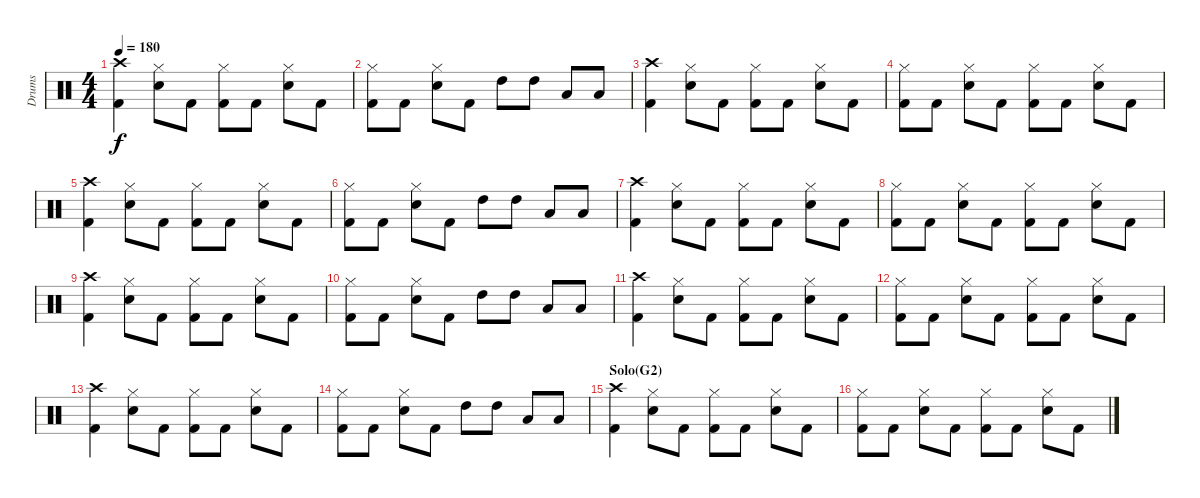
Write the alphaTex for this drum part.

\track ("Drums" "Drums") {instrument percussion}
\staff {score}
\articulation defaults
\ts (4 4)
\tempo 180
\clef neutral
\ks c
("Crash high (hit)" "Kick (hit) 2").4{dy f} ("Hi-Hat (closed)" "Electric Snare (hit)").8 "Kick (hit) 2".8 ("Hi-Hat (closed)" "Kick (hit) 2").8 "Kick (hit) 2".8 ("Hi-Hat (closed)" "Electric Snare (hit)").8 "Kick (hit) 2".8 |
("Hi-Hat (closed)" "Kick (hit) 2").8 "Kick (hit) 2".8 ("Hi-Hat (closed)" "Electric Snare (hit)").8 "Kick (hit) 2".8 "High Tom (hit)".8 "High Tom (hit)".8 "Low Tom (hit)".8 "Low Tom (hit)".8 |
("Crash high (hit)" "Kick (hit) 2").4 ("Hi-Hat (closed)" "Electric Snare (hit)").8 "Kick (hit) 2".8 ("Hi-Hat (closed)" "Kick (hit) 2").8 "Kick (hit) 2".8 ("Hi-Hat (closed)" "Electric Snare (hit)").8 "Kick (hit) 2".8 |
("Hi-Hat (closed)" "Kick (hit) 2").8 "Kick (hit) 2".8 ("Hi-Hat (closed)" "Electric Snare (hit)").8 "Kick (hit) 2".8 ("Hi-Hat (closed)" "Kick (hit) 2").8 "Kick (hit) 2".8 ("Hi-Hat (closed)" "Electric Snare (hit)").8 "Kick (hit) 2".8 |
("Crash high (hit)" "Kick (hit) 2").4 ("Hi-Hat (closed)" "Electric Snare (hit)").8 "Kick (hit) 2".8 ("Hi-Hat (closed)" "Kick (hit) 2").8 "Kick (hit) 2".8 ("Hi-Hat (closed)" "Electric Snare (hit)").8 "Kick (hit) 2".8 |
("Hi-Hat (closed)" "Kick (hit) 2").8 "Kick (hit) 2".8 ("Hi-Hat (closed)" "Electric Snare (hit)").8 "Kick (hit) 2".8 "High Tom (hit)".8 "High Tom (hit)".8 "Low Tom (hit)".8 "Low Tom (hit)".8 |
("Crash high (hit)" "Kick (hit) 2").4 ("Hi-Hat (closed)" "Electric Snare (hit)").8 "Kick (hit) 2".8 ("Hi-Hat (closed)" "Kick (hit) 2").8 "Kick (hit) 2".8 ("Hi-Hat (closed)" "Electric Snare (hit)").8 "Kick (hit) 2".8 |
("Hi-Hat (closed)" "Kick (hit) 2").8 "Kick (hit) 2".8 ("Hi-Hat (closed)" "Electric Snare (hit)").8 "Kick (hit) 2".8 ("Hi-Hat (closed)" "Kick (hit) 2").8 "Kick (hit) 2".8 ("Hi-Hat (closed)" "Electric Snare (hit)").8 "Kick (hit) 2".8 |
("Crash high (hit)" "Kick (hit) 2").4 ("Hi-Hat (closed)" "Electric Snare (hit)").8 "Kick (hit) 2".8 ("Hi-Hat (closed)" "Kick (hit) 2").8 "Kick (hit) 2".8 ("Hi-Hat (closed)" "Electric Snare (hit)").8 "Kick (hit) 2".8 |
("Hi-Hat (closed)" "Kick (hit) 2").8 "Kick (hit) 2".8 ("Hi-Hat (closed)" "Electric Snare (hit)").8 "Kick (hit) 2".8 "High Tom (hit)".8 "High Tom (hit)".8 "Low Tom (hit)".8 "Low Tom (hit)".8 |
("Crash high (hit)" "Kick (hit) 2").4 ("Hi-Hat (closed)" "Electric Snare (hit)").8 "Kick (hit) 2".8 ("Hi-Hat (closed)" "Kick (hit) 2").8 "Kick (hit) 2".8 ("Hi-Hat (closed)" "Electric Snare (hit)").8 "Kick (hit) 2".8 |
("Hi-Hat (closed)" "Kick (hit) 2").8 "Kick (hit) 2".8 ("Hi-Hat (closed)" "Electric Snare (hit)").8 "Kick (hit) 2".8 ("Hi-Hat (closed)" "Kick (hit) 2").8 "Kick (hit) 2".8 ("Hi-Hat (closed)" "Electric Snare (hit)").8 "Kick (hit) 2".8 |
("Crash high (hit)" "Kick (hit) 2").4 ("Hi-Hat (closed)" "Electric Snare (hit)").8 "Kick (hit) 2".8 ("Hi-Hat (closed)" "Kick (hit) 2").8 "Kick (hit) 2".8 ("Hi-Hat (closed)" "Electric Snare (hit)").8 "Kick (hit) 2".8 |
("Hi-Hat (closed)" "Kick (hit) 2").8 "Kick (hit) 2".8 ("Hi-Hat (closed)" "Electric Snare (hit)").8 "Kick (hit) 2".8 "High Tom (hit)".8 "High Tom (hit)".8 "Low Tom (hit)".8 "Low Tom (hit)".8 |
\section ("" "Solo(G2)")
("Crash high (hit)" "Kick (hit) 2").4 ("Hi-Hat (closed)" "Electric Snare (hit)").8 "Kick (hit) 2".8 ("Hi-Hat (closed)" "Kick (hit) 2").8 "Kick (hit) 2".8 ("Hi-Hat (closed)" "Electric Snare (hit)").8 "Kick (hit) 2".8 |
("Hi-Hat (closed)" "Kick (hit) 2").8 "Kick (hit) 2".8 ("Hi-Hat (closed)" "Electric Snare (hit)").8 "Kick (hit) 2".8 ("Hi-Hat (closed)" "Kick (hit) 2").8 "Kick (hit) 2".8 ("Hi-Hat (closed)" "Electric Snare (hit)").8 "Kick (hit) 2".8
